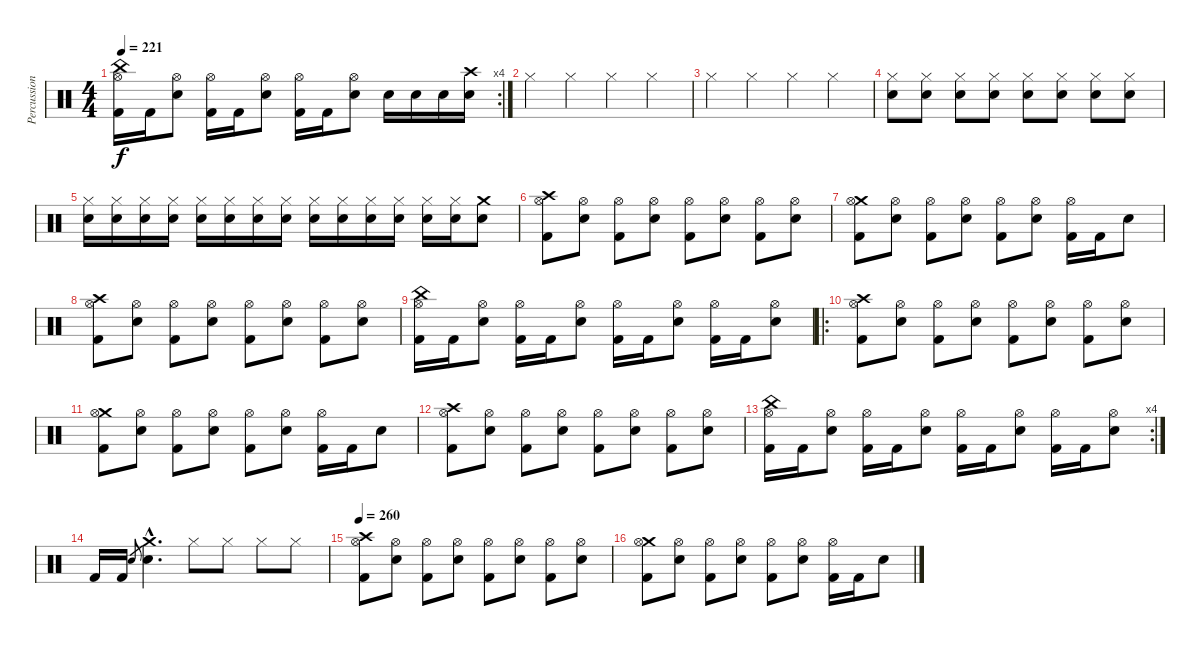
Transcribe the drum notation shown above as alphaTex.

\track ("Percussion" "Percussion") {instrument percussion}
\staff {score}
\articulation defaults
\rc 4
\ts (4 4)
\tempo 221
\clef neutral
\ks c
("China (hit)" "Kick (hit) 2" "Hi-Hat (open)").16{dy f} "Kick (hit) 2".16 ("Electric Snare (hit)" "Hi-Hat (open)").8 ("Kick (hit) 2" "Hi-Hat (open)").16 "Kick (hit) 2".16 ("Electric Snare (hit)" "Hi-Hat (open)").8 ("Kick (hit) 2" "Hi-Hat (open)").16 "Kick (hit) 2".16 ("Electric Snare (hit)" "Hi-Hat (open)").8 "Electric Snare (hit)".16 "Electric Snare (hit)".16 "Electric Snare (hit)".16 ("Crash high (hit)" "Electric Snare (hit)").16 |
"Hi-Hat (closed)".4 "Hi-Hat (closed)".4 "Hi-Hat (closed)".4 "Hi-Hat (closed)".4 |
"Hi-Hat (closed)".4 "Hi-Hat (closed)".4 "Hi-Hat (closed)".4 "Hi-Hat (closed)".4 |
("Hi-Hat (closed)" "Electric Snare (hit)").8 ("Hi-Hat (closed)" "Electric Snare (hit)").8 ("Hi-Hat (closed)" "Electric Snare (hit)").8 ("Hi-Hat (closed)" "Electric Snare (hit)").8 ("Hi-Hat (closed)" "Electric Snare (hit)").8 ("Hi-Hat (closed)" "Electric Snare (hit)").8 ("Hi-Hat (closed)" "Electric Snare (hit)").8 ("Hi-Hat (closed)" "Electric Snare (hit)").8 |
("Hi-Hat (closed)" "Electric Snare (hit)").16 ("Hi-Hat (closed)" "Electric Snare (hit)").16 ("Hi-Hat (closed)" "Electric Snare (hit)").16 ("Hi-Hat (closed)" "Electric Snare (hit)").16 ("Hi-Hat (closed)" "Electric Snare (hit)").16 ("Hi-Hat (closed)" "Electric Snare (hit)").16 ("Hi-Hat (closed)" "Electric Snare (hit)").16 ("Hi-Hat (closed)" "Electric Snare (hit)").16 ("Hi-Hat (closed)" "Electric Snare (hit)").16 ("Hi-Hat (closed)" "Electric Snare (hit)").16 ("Hi-Hat (closed)" "Electric Snare (hit)").16 ("Hi-Hat (closed)" "Electric Snare (hit)").16 ("Hi-Hat (closed)" "Electric Snare (hit)").16 ("Hi-Hat (closed)" "Electric Snare (hit)").16 ("Crash medium (hit)" "Electric Snare (hit)").8 |
("Crash high (hit)" "Kick (hit) 2" "Hi-Hat (open)").8 ("Electric Snare (hit)" "Hi-Hat (open)").8 ("Kick (hit) 2" "Hi-Hat (open)").8 ("Electric Snare (hit)" "Hi-Hat (open)").8 ("Kick (hit) 2" "Hi-Hat (open)").8 ("Electric Snare (hit)" "Hi-Hat (open)").8 ("Kick (hit) 2" "Hi-Hat (open)").8 ("Electric Snare (hit)" "Hi-Hat (open)").8 |
("Crash medium (hit)" "Kick (hit) 2" "Hi-Hat (open)").8 ("Electric Snare (hit)" "Hi-Hat (open)").8 ("Kick (hit) 2" "Hi-Hat (open)").8 ("Electric Snare (hit)" "Hi-Hat (open)").8 ("Kick (hit) 2" "Hi-Hat (open)").8 ("Electric Snare (hit)" "Hi-Hat (open)").8 ("Kick (hit) 2" "Hi-Hat (open)").16 "Kick (hit) 2".16 "Electric Snare (hit)".8 |
("Crash high (hit)" "Kick (hit) 2" "Hi-Hat (open)").8 ("Electric Snare (hit)" "Hi-Hat (open)").8 ("Kick (hit) 2" "Hi-Hat (open)").8 ("Electric Snare (hit)" "Hi-Hat (open)").8 ("Kick (hit) 2" "Hi-Hat (open)").8 ("Electric Snare (hit)" "Hi-Hat (open)").8 ("Kick (hit) 2" "Hi-Hat (open)").8 ("Electric Snare (hit)" "Hi-Hat (open)").8 |
("China (hit)" "Kick (hit) 2" "Hi-Hat (open)").16 "Kick (hit) 2".16 ("Electric Snare (hit)" "Hi-Hat (open)").8 ("Kick (hit) 2" "Hi-Hat (open)").16 "Kick (hit) 2".16 ("Electric Snare (hit)" "Hi-Hat (open)").8 ("Kick (hit) 2" "Hi-Hat (open)").16 "Kick (hit) 2".16 ("Electric Snare (hit)" "Hi-Hat (open)").8 ("Kick (hit) 2" "Hi-Hat (open)").16 "Kick (hit) 2".16 ("Electric Snare (hit)" "Hi-Hat (open)").8 |
\ro
("Crash high (hit)" "Kick (hit) 2" "Hi-Hat (open)").8 ("Electric Snare (hit)" "Hi-Hat (open)").8 ("Kick (hit) 2" "Hi-Hat (open)").8 ("Electric Snare (hit)" "Hi-Hat (open)").8 ("Kick (hit) 2" "Hi-Hat (open)").8 ("Electric Snare (hit)" "Hi-Hat (open)").8 ("Kick (hit) 2" "Hi-Hat (open)").8 ("Electric Snare (hit)" "Hi-Hat (open)").8 |
("Crash medium (hit)" "Kick (hit) 2" "Hi-Hat (open)").8 ("Electric Snare (hit)" "Hi-Hat (open)").8 ("Kick (hit) 2" "Hi-Hat (open)").8 ("Electric Snare (hit)" "Hi-Hat (open)").8 ("Kick (hit) 2" "Hi-Hat (open)").8 ("Electric Snare (hit)" "Hi-Hat (open)").8 ("Kick (hit) 2" "Hi-Hat (open)").16 "Kick (hit) 2".16 "Electric Snare (hit)".8 |
("Crash high (hit)" "Kick (hit) 2" "Hi-Hat (open)").8 ("Electric Snare (hit)" "Hi-Hat (open)").8 ("Kick (hit) 2" "Hi-Hat (open)").8 ("Electric Snare (hit)" "Hi-Hat (open)").8 ("Kick (hit) 2" "Hi-Hat (open)").8 ("Electric Snare (hit)" "Hi-Hat (open)").8 ("Kick (hit) 2" "Hi-Hat (open)").8 ("Electric Snare (hit)" "Hi-Hat (open)").8 |
\rc 4
("China (hit)" "Kick (hit) 2" "Hi-Hat (open)").16 "Kick (hit) 2".16 ("Electric Snare (hit)" "Hi-Hat (open)").8 ("Kick (hit) 2" "Hi-Hat (open)").16 "Kick (hit) 2".16 ("Electric Snare (hit)" "Hi-Hat (open)").8 ("Kick (hit) 2" "Hi-Hat (open)").16 "Kick (hit) 2".16 ("Electric Snare (hit)" "Hi-Hat (open)").8 ("Kick (hit) 2" "Hi-Hat (open)").16 "Kick (hit) 2".16 ("Electric Snare (hit)" "Hi-Hat (open)").8 |
"Kick (hit) 2".16 "Kick (hit) 2".16 "Electric Snare (hit)".8{gr} ("Crash medium (hit)"{hac} "Electric Snare (hit)"{hac}).4{d} "Hi-Hat (closed)".8 "Hi-Hat (closed)".8 "Hi-Hat (closed)".8 "Hi-Hat (closed)".8 |
\tempo 260
("Crash high (hit)" "Kick (hit) 2" "Hi-Hat (open)").8 ("Electric Snare (hit)" "Hi-Hat (open)").8 ("Kick (hit) 2" "Hi-Hat (open)").8 ("Electric Snare (hit)" "Hi-Hat (open)").8 ("Kick (hit) 2" "Hi-Hat (open)").8 ("Electric Snare (hit)" "Hi-Hat (open)").8 ("Kick (hit) 2" "Hi-Hat (open)").8 ("Electric Snare (hit)" "Hi-Hat (open)").8 |
("Crash medium (hit)" "Kick (hit) 2" "Hi-Hat (open)").8 ("Electric Snare (hit)" "Hi-Hat (open)").8 ("Kick (hit) 2" "Hi-Hat (open)").8 ("Electric Snare (hit)" "Hi-Hat (open)").8 ("Kick (hit) 2" "Hi-Hat (open)").8 ("Electric Snare (hit)" "Hi-Hat (open)").8 ("Kick (hit) 2" "Hi-Hat (open)").16 "Kick (hit) 2".16 "Electric Snare (hit)".8
